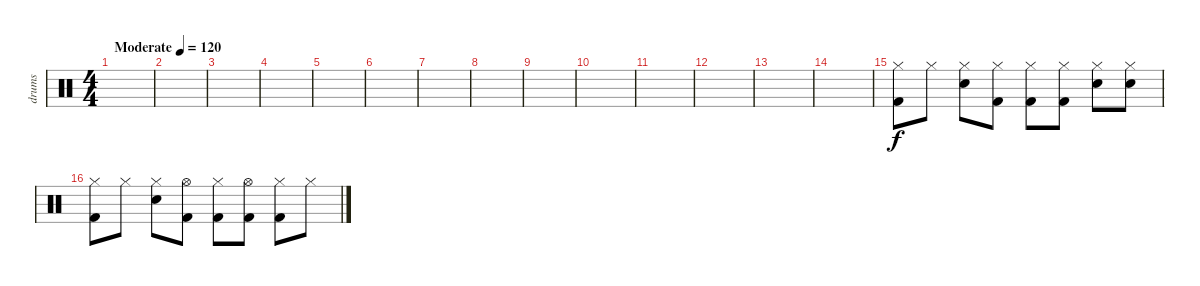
\track ("drums" "drums") {instrument percussion}
\staff {score}
\articulation defaults
\ts (4 4)
\tempo (120 "Moderate")
\clef neutral
\ks c
|
|
|
|
|
|
|
|
|
|
|
|
|
|
("Hi-Hat (closed)" "Kick (hit) 2").8 "Hi-Hat (closed)".8 ("Hi-Hat (closed)" "Snare (hit) 2").8 ("Hi-Hat (closed)" "Kick (hit) 2").8 ("Hi-Hat (closed)" "Kick (hit) 2").8 ("Hi-Hat (closed)" "Kick (hit) 2").8 ("Hi-Hat (closed)" "Snare (hit) 2").8 ("Hi-Hat (closed)" "Snare (hit) 2").8 |
("Hi-Hat (closed)" "Kick (hit) 2").8 "Hi-Hat (closed)".8 ("Hi-Hat (closed)" "Snare (hit) 2").8 ("Hi-Hat (open)" "Kick (hit) 2").8 ("Hi-Hat (closed)" "Kick (hit) 2").8 ("Hi-Hat (open)" "Kick (hit) 2").8 ("Hi-Hat (closed)" "Kick (hit) 2").8 "Hi-Hat (closed)".8
